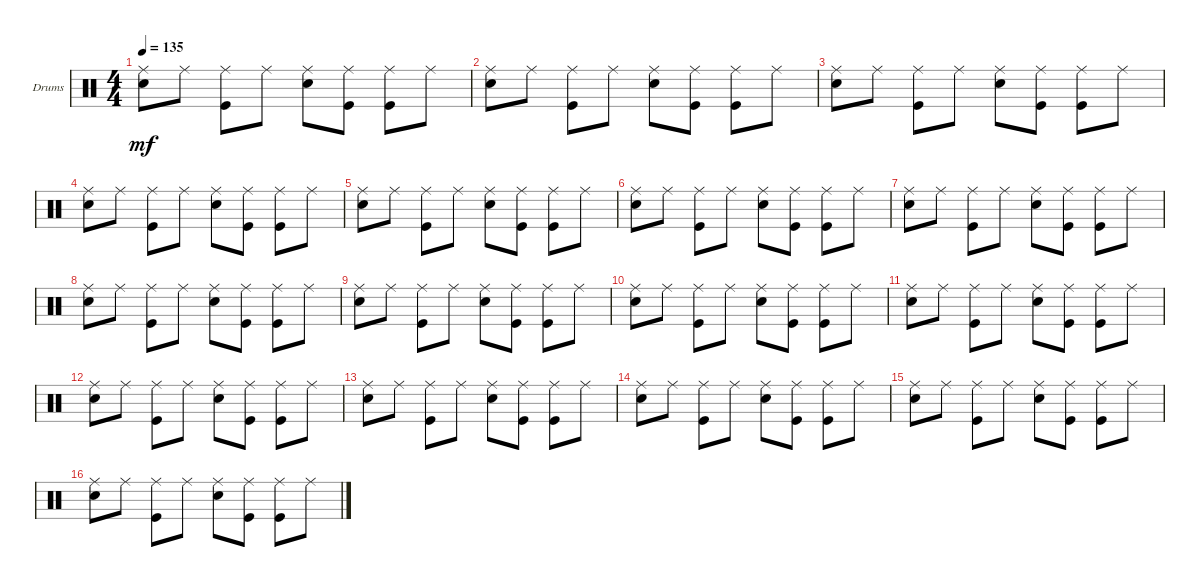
\bracketExtendMode groupsimilarinstruments
\firstSystemTrackNameOrientation horizontal
\otherSystemsTrackNameOrientation horizontal
\track ("Drumkit" "Drums") {instrument percussion}
\staff {score}
\articulation defaults
\ts (4 4)
\tempo 135
\clef neutral
\ks c
("Snare (hit) 2" "Ride (middle)").8{dy mf} "Ride (middle)".8 ("Kick (hit)" "Ride (middle)").8 "Ride (middle)".8 ("Snare (hit) 2" "Ride (middle)").8 ("Kick (hit)" "Ride (middle)").8 ("Kick (hit)" "Ride (middle)").8 "Ride (middle)".8 |
("Snare (hit) 2" "Ride (middle)").8 "Ride (middle)".8 ("Kick (hit)" "Ride (middle)").8 "Ride (middle)".8 ("Snare (hit) 2" "Ride (middle)").8 ("Kick (hit)" "Ride (middle)").8 ("Kick (hit)" "Ride (middle)").8 "Ride (middle)".8 |
("Snare (hit) 2" "Ride (middle)").8 "Ride (middle)".8 ("Kick (hit)" "Ride (middle)").8 "Ride (middle)".8 ("Snare (hit) 2" "Ride (middle)").8 ("Kick (hit)" "Ride (middle)").8 ("Kick (hit)" "Ride (middle)").8 "Ride (middle)".8 |
("Snare (hit) 2" "Ride (middle)").8 "Ride (middle)".8 ("Kick (hit)" "Ride (middle)").8 "Ride (middle)".8 ("Snare (hit) 2" "Ride (middle)").8 ("Kick (hit)" "Ride (middle)").8 ("Kick (hit)" "Ride (middle)").8 "Ride (middle)".8 |
("Snare (hit) 2" "Ride (middle)").8 "Ride (middle)".8 ("Kick (hit)" "Ride (middle)").8 "Ride (middle)".8 ("Snare (hit) 2" "Ride (middle)").8 ("Kick (hit)" "Ride (middle)").8 ("Kick (hit)" "Ride (middle)").8 "Ride (middle)".8 |
("Snare (hit) 2" "Ride (middle)").8 "Ride (middle)".8 ("Kick (hit)" "Ride (middle)").8 "Ride (middle)".8 ("Snare (hit) 2" "Ride (middle)").8 ("Kick (hit)" "Ride (middle)").8 ("Kick (hit)" "Ride (middle)").8 "Ride (middle)".8 |
("Snare (hit) 2" "Ride (middle)").8 "Ride (middle)".8 ("Kick (hit)" "Ride (middle)").8 "Ride (middle)".8 ("Snare (hit) 2" "Ride (middle)").8 ("Kick (hit)" "Ride (middle)").8 ("Kick (hit)" "Ride (middle)").8 "Ride (middle)".8 |
("Snare (hit) 2" "Ride (middle)").8 "Ride (middle)".8 ("Kick (hit)" "Ride (middle)").8 "Ride (middle)".8 ("Snare (hit) 2" "Ride (middle)").8 ("Kick (hit)" "Ride (middle)").8 ("Kick (hit)" "Ride (middle)").8 "Ride (middle)".8 |
("Snare (hit) 2" "Ride (middle)").8 "Ride (middle)".8 ("Kick (hit)" "Ride (middle)").8 "Ride (middle)".8 ("Snare (hit) 2" "Ride (middle)").8 ("Kick (hit)" "Ride (middle)").8 ("Kick (hit)" "Ride (middle)").8 "Ride (middle)".8 |
("Snare (hit) 2" "Ride (middle)").8 "Ride (middle)".8 ("Kick (hit)" "Ride (middle)").8 "Ride (middle)".8 ("Snare (hit) 2" "Ride (middle)").8 ("Kick (hit)" "Ride (middle)").8 ("Kick (hit)" "Ride (middle)").8 "Ride (middle)".8 |
("Snare (hit) 2" "Ride (middle)").8 "Ride (middle)".8 ("Kick (hit)" "Ride (middle)").8 "Ride (middle)".8 ("Snare (hit) 2" "Ride (middle)").8 ("Kick (hit)" "Ride (middle)").8 ("Kick (hit)" "Ride (middle)").8 "Ride (middle)".8 |
("Snare (hit) 2" "Ride (middle)").8 "Ride (middle)".8 ("Kick (hit)" "Ride (middle)").8 "Ride (middle)".8 ("Snare (hit) 2" "Ride (middle)").8 ("Kick (hit)" "Ride (middle)").8 ("Kick (hit)" "Ride (middle)").8 "Ride (middle)".8 |
("Snare (hit) 2" "Ride (middle)").8 "Ride (middle)".8 ("Kick (hit)" "Ride (middle)").8 "Ride (middle)".8 ("Snare (hit) 2" "Ride (middle)").8 ("Kick (hit)" "Ride (middle)").8 ("Kick (hit)" "Ride (middle)").8 "Ride (middle)".8 |
("Snare (hit) 2" "Ride (middle)").8 "Ride (middle)".8 ("Kick (hit)" "Ride (middle)").8 "Ride (middle)".8 ("Snare (hit) 2" "Ride (middle)").8 ("Kick (hit)" "Ride (middle)").8 ("Kick (hit)" "Ride (middle)").8 "Ride (middle)".8 |
("Snare (hit) 2" "Ride (middle)").8 "Ride (middle)".8 ("Kick (hit)" "Ride (middle)").8 "Ride (middle)".8 ("Snare (hit) 2" "Ride (middle)").8 ("Kick (hit)" "Ride (middle)").8 ("Kick (hit)" "Ride (middle)").8 "Ride (middle)".8 |
("Snare (hit) 2" "Ride (middle)").8 "Ride (middle)".8 ("Kick (hit)" "Ride (middle)").8 "Ride (middle)".8 ("Snare (hit) 2" "Ride (middle)").8 ("Kick (hit)" "Ride (middle)").8 ("Kick (hit)" "Ride (middle)").8 "Ride (middle)".8
